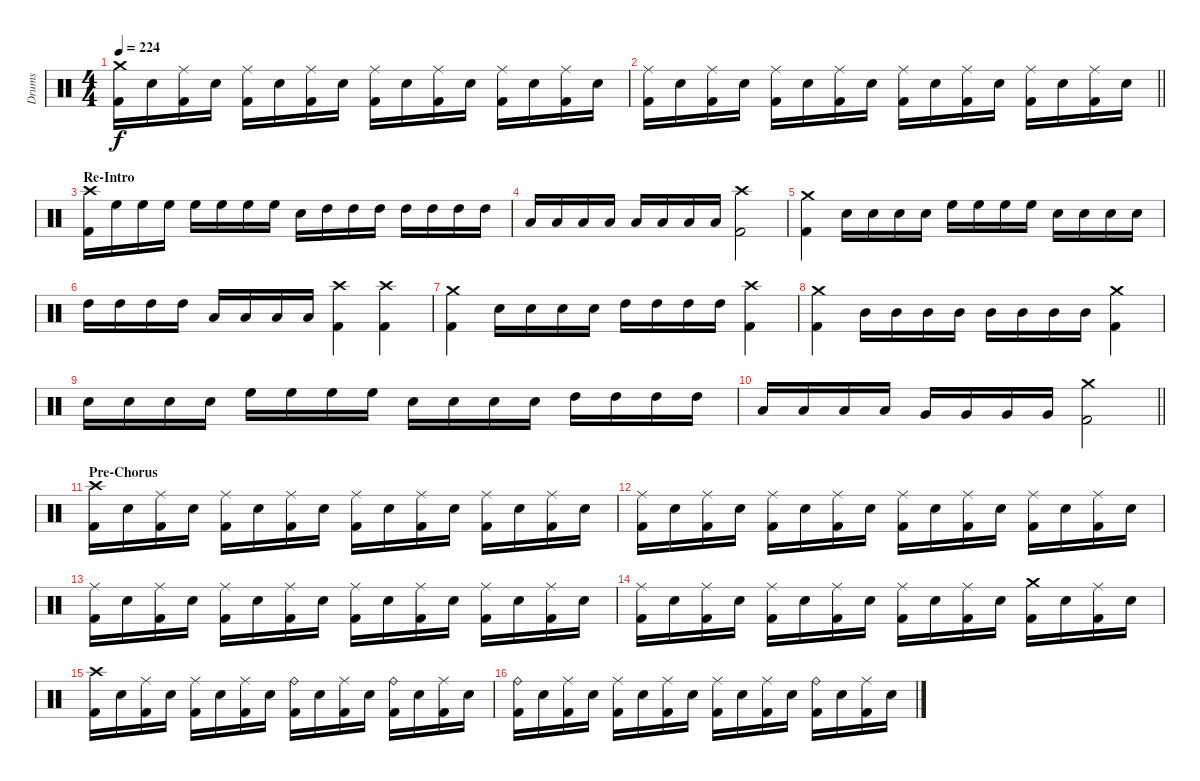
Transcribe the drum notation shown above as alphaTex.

\track ("Drums" "Drums") {instrument percussion}
\staff {score}
\articulation defaults
\ts (4 4)
\tempo 224
\clef neutral
\ks c
("Crash medium (hit)" "Kick (hit) 2").16{dy f} "Electric Snare (hit)".16 ("Ride (middle)" "Kick (hit) 2").16 "Electric Snare (hit)".16 ("Ride (middle)" "Kick (hit) 2").16 "Electric Snare (hit)".16 ("Ride (middle)" "Kick (hit) 2").16 "Electric Snare (hit)".16 ("Ride (middle)" "Kick (hit) 2").16 "Electric Snare (hit)".16 ("Ride (middle)" "Kick (hit) 2").16 "Electric Snare (hit)".16 ("Ride (middle)" "Kick (hit) 2").16 "Electric Snare (hit)".16 ("Ride (middle)" "Kick (hit) 2").16 "Electric Snare (hit)".16 |
\barLineRight lightlight
("Ride (middle)" "Kick (hit) 2").16 "Electric Snare (hit)".16 ("Ride (middle)" "Kick (hit) 2").16 "Electric Snare (hit)".16 ("Ride (middle)" "Kick (hit) 2").16 "Electric Snare (hit)".16 ("Ride (middle)" "Kick (hit) 2").16 "Electric Snare (hit)".16 ("Ride (middle)" "Kick (hit) 2").16 "Electric Snare (hit)".16 ("Ride (middle)" "Kick (hit) 2").16 "Electric Snare (hit)".16 ("Ride (middle)" "Kick (hit) 2").16 "Electric Snare (hit)".16 ("Ride (middle)" "Kick (hit) 2").16 "Electric Snare (hit)".16 |
\section ("" "Re-Intro")
("Crash high (hit)" "Kick (hit) 2").16 "High Floor Tom (hit)".16 "High Floor Tom (hit)".16 "High Floor Tom (hit)".16 "High Floor Tom (hit)".16 "High Floor Tom (hit)".16 "High Floor Tom (hit)".16 "High Floor Tom (hit)".16 "Electric Snare (hit)".16 "High Tom (hit)".16 "High Tom (hit)".16 "High Tom (hit)".16 "High Tom (hit)".16 "High Tom (hit)".16 "High Tom (hit)".16 "High Tom (hit)".16 |
"Low Tom (hit)".16 "Low Tom (hit)".16 "Low Tom (hit)".16 "Low Tom (hit)".16 "Low Tom (hit)".16 "Low Tom (hit)".16 "Low Tom (hit)".16 "Low Tom (hit)".16 ("Crash high (hit)" "Kick (hit) 2").2 |
("Crash medium (hit)" "Kick (hit) 2").4 "Electric Snare (hit)".16 "Electric Snare (hit)".16 "Electric Snare (hit)".16 "Electric Snare (hit)".16 "High Floor Tom (hit)".16 "High Floor Tom (hit)".16 "High Floor Tom (hit)".16 "High Floor Tom (hit)".16 "Electric Snare (hit)".16 "Electric Snare (hit)".16 "Electric Snare (hit)".16 "Electric Snare (hit)".16 |
"High Tom (hit)".16 "High Tom (hit)".16 "High Tom (hit)".16 "High Tom (hit)".16 "Low Tom (hit)".16 "Low Tom (hit)".16 "Low Tom (hit)".16 "Low Tom (hit)".16 ("Crash high (hit)" "Kick (hit) 2").4 ("Crash high (hit)" "Kick (hit) 2").4 |
("Crash medium (hit)" "Kick (hit) 2").4 "Electric Snare (hit)".16 "Electric Snare (hit)".16 "Electric Snare (hit)".16 "Electric Snare (hit)".16 "High Tom (hit)".16 "High Tom (hit)".16 "High Tom (hit)".16 "High Tom (hit)".16 ("Crash high (hit)" "Kick (hit) 2").4 |
("Crash medium (hit)" "Kick (hit) 2").4 "Mid Tom (hit)".16 "Mid Tom (hit)".16 "Mid Tom (hit)".16 "Mid Tom (hit)".16 "Mid Tom (hit)".16 "Mid Tom (hit)".16 "Mid Tom (hit)".16 "Mid Tom (hit)".16 ("Crash medium (hit)" "Kick (hit) 2").4 |
"Electric Snare (hit)".16 "Electric Snare (hit)".16 "Electric Snare (hit)".16 "Electric Snare (hit)".16 "High Floor Tom (hit)".16 "High Floor Tom (hit)".16 "High Floor Tom (hit)".16 "High Floor Tom (hit)".16 "Electric Snare (hit)".16 "Electric Snare (hit)".16 "Electric Snare (hit)".16 "Electric Snare (hit)".16 "High Tom (hit)".16 "High Tom (hit)".16 "High Tom (hit)".16 "High Tom (hit)".16 |
\barLineRight lightlight "Low Tom (hit)".16 "Low Tom (hit)".16 "Low Tom (hit)".16 "Low Tom (hit)".16 "Very Low Tom (hit)".16 "Very Low Tom (hit)".16 "Very Low Tom (hit)".16 "Very Low Tom (hit)".16
("Crash medium (hit)" "Kick (hit) 2").2 |
\section ("" "Pre-Chorus")
("Crash high (hit)" "Kick (hit) 2").16 "Electric Snare (hit)".16 ("Ride (middle)" "Kick (hit) 2").16 "Electric Snare (hit)".16 ("Ride (middle)" "Kick (hit) 2").16 "Electric Snare (hit)".16 ("Ride (middle)" "Kick (hit) 2").16 "Electric Snare (hit)".16 ("Ride (middle)" "Kick (hit) 2").16 "Electric Snare (hit)".16 ("Ride (middle)" "Kick (hit) 2").16 "Electric Snare (hit)".16 ("Ride (middle)" "Kick (hit) 2").16 "Electric Snare (hit)".16 ("Ride (middle)" "Kick (hit) 2").16 "Electric Snare (hit)".16 |
("Ride (middle)" "Kick (hit) 2").16 "Electric Snare (hit)".16 ("Ride (middle)" "Kick (hit) 2").16 "Electric Snare (hit)".16 ("Ride (middle)" "Kick (hit) 2").16 "Electric Snare (hit)".16 ("Ride (middle)" "Kick (hit) 2").16 "Electric Snare (hit)".16 ("Ride (middle)" "Kick (hit) 2").16 "Electric Snare (hit)".16 ("Ride (middle)" "Kick (hit) 2").16 "Electric Snare (hit)".16 ("Ride (middle)" "Kick (hit) 2").16 "Electric Snare (hit)".16 ("Ride (middle)" "Kick (hit) 2").16 "Electric Snare (hit)".16 |
("Ride (middle)" "Kick (hit) 2").16 "Electric Snare (hit)".16 ("Ride (middle)" "Kick (hit) 2").16 "Electric Snare (hit)".16 ("Ride (middle)" "Kick (hit) 2").16 "Electric Snare (hit)".16 ("Ride (middle)" "Kick (hit) 2").16 "Electric Snare (hit)".16 ("Ride (middle)" "Kick (hit) 2").16 "Electric Snare (hit)".16 ("Ride (middle)" "Kick (hit) 2").16 "Electric Snare (hit)".16 ("Ride (middle)" "Kick (hit) 2").16 "Electric Snare (hit)".16 ("Ride (middle)" "Kick (hit) 2").16 "Electric Snare (hit)".16 |
("Ride (middle)" "Kick (hit) 2").16 "Electric Snare (hit)".16 ("Ride (middle)" "Kick (hit) 2").16 "Electric Snare (hit)".16 ("Ride (middle)" "Kick (hit) 2").16 "Electric Snare (hit)".16 ("Ride (middle)" "Kick (hit) 2").16 "Electric Snare (hit)".16 ("Ride (middle)" "Kick (hit) 2").16 "Electric Snare (hit)".16 ("Ride (middle)" "Kick (hit) 2").16 "Electric Snare (hit)".16 ("Crash medium (hit)" "Kick (hit) 2").16 "Electric Snare (hit)".16 ("Ride (middle)" "Kick (hit) 2").16 "Electric Snare (hit)".16 |
("Crash high (hit)" "Kick (hit) 2").16 "Electric Snare (hit)".16 ("Ride (middle)" "Kick (hit) 2").16 "Electric Snare (hit)".16 ("Ride (middle)" "Kick (hit) 2").16 "Electric Snare (hit)".16 ("Ride (middle)" "Kick (hit) 2").16 "Electric Snare (hit)".16 ("Ride (bell)" "Kick (hit) 2").16 "Electric Snare (hit)".16 ("Ride (middle)" "Kick (hit) 2").16 "Electric Snare (hit)".16 ("Ride (bell)" "Kick (hit) 2").16 "Electric Snare (hit)".16 ("Ride (middle)" "Kick (hit) 2").16 "Electric Snare (hit)".16 |
("Ride (bell)" "Kick (hit) 2").16 "Electric Snare (hit)".16 ("Ride (middle)" "Kick (hit) 2").16 "Electric Snare (hit)".16 ("Ride (middle)" "Kick (hit) 2").16 "Electric Snare (hit)".16 ("Ride (middle)" "Kick (hit) 2").16 "Electric Snare (hit)".16 ("Ride (middle)" "Kick (hit) 2").16 "Electric Snare (hit)".16 ("Ride (middle)" "Kick (hit) 2").16 "Electric Snare (hit)".16 ("Ride (bell)" "Kick (hit) 2").16 "Electric Snare (hit)".16 ("Ride (middle)" "Kick (hit) 2").16 "Electric Snare (hit)".16
